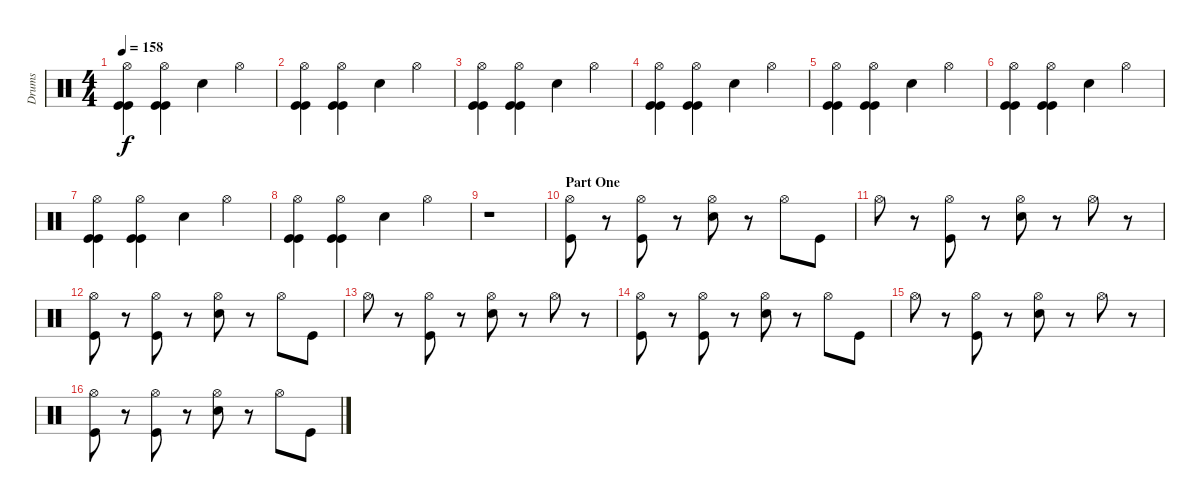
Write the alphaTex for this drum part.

\track ("Drums" "Drums") {instrument percussion}
\staff {score}
\articulation defaults
\ts (4 4)
\tempo 158
\clef neutral
\ks c
("Hi-Hat (open)" "Kick (hit)" "Kick (hit)").4{dy f} ("Hi-Hat (open)" "Kick (hit)" "Kick (hit)").4{volume 12} "Electric Snare (hit)".4 "Hi-Hat (open)".4{volume 13} |
("Hi-Hat (open)" "Kick (hit)" "Kick (hit)").4 ("Hi-Hat (open)" "Kick (hit)" "Kick (hit)").4 "Electric Snare (hit)".4 "Hi-Hat (open)".4 |
("Hi-Hat (open)" "Kick (hit)" "Kick (hit)").4 ("Hi-Hat (open)" "Kick (hit)" "Kick (hit)").4 "Electric Snare (hit)".4 "Hi-Hat (open)".4 |
("Hi-Hat (open)" "Kick (hit)" "Kick (hit)").4 ("Hi-Hat (open)" "Kick (hit)" "Kick (hit)").4 "Electric Snare (hit)".4 "Hi-Hat (open)".4 |
("Hi-Hat (open)" "Kick (hit)" "Kick (hit)").4 ("Hi-Hat (open)" "Kick (hit)" "Kick (hit)").4 "Electric Snare (hit)".4 "Hi-Hat (open)".4 |
("Hi-Hat (open)" "Kick (hit)" "Kick (hit)").4 ("Hi-Hat (open)" "Kick (hit)" "Kick (hit)").4 "Electric Snare (hit)".4 "Hi-Hat (open)".4 |
("Hi-Hat (open)" "Kick (hit)" "Kick (hit)").4 ("Hi-Hat (open)" "Kick (hit)" "Kick (hit)").4 "Electric Snare (hit)".4 "Hi-Hat (open)".4 |
("Hi-Hat (open)" "Kick (hit)" "Kick (hit)").4 ("Hi-Hat (open)" "Kick (hit)" "Kick (hit)").4 "Electric Snare (hit)".4 "Hi-Hat (open)".4 |
r.1 |
\section ("" "Part One")
("Hi-Hat (open)" "Kick (hit)").8 r.8 ("Hi-Hat (open)" "Kick (hit)").8 r.8 ("Hi-Hat (open)" "Snare (hit) 2").8 r.8 "Hi-Hat (open)".8 "Kick (hit)".8 |
"Hi-Hat (open)".8 r.8 ("Hi-Hat (open)" "Kick (hit)").8 r.8 ("Hi-Hat (open)" "Snare (hit) 2").8 r.8 "Hi-Hat (open)".8 r.8 |
("Hi-Hat (open)" "Kick (hit)").8 r.8 ("Hi-Hat (open)" "Kick (hit)").8 r.8 ("Hi-Hat (open)" "Snare (hit) 2").8 r.8 "Hi-Hat (open)".8 "Kick (hit)".8 |
"Hi-Hat (open)".8 r.8 ("Hi-Hat (open)" "Kick (hit)").8 r.8 ("Hi-Hat (open)" "Snare (hit) 2").8 r.8 "Hi-Hat (open)".8 r.8 |
("Hi-Hat (open)" "Kick (hit)").8 r.8 ("Hi-Hat (open)" "Kick (hit)").8 r.8 ("Hi-Hat (open)" "Snare (hit) 2").8 r.8 "Hi-Hat (open)".8 "Kick (hit)".8 |
"Hi-Hat (open)".8 r.8 ("Hi-Hat (open)" "Kick (hit)").8 r.8 ("Hi-Hat (open)" "Snare (hit) 2").8 r.8 "Hi-Hat (open)".8 r.8 |
("Hi-Hat (open)" "Kick (hit)").8 r.8 ("Hi-Hat (open)" "Kick (hit)").8 r.8 ("Hi-Hat (open)" "Snare (hit) 2").8 r.8 "Hi-Hat (open)".8 "Kick (hit)".8
